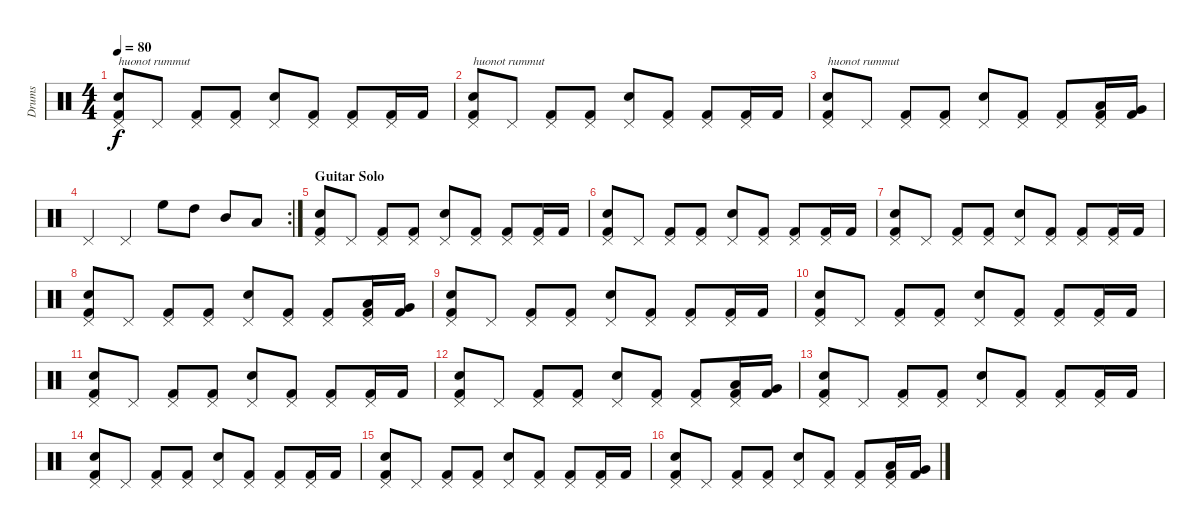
\track ("Drums" "Drums") {instrument percussion}
\staff {score}
\articulation defaults
\ts (4 4)
\tempo 80
\clef neutral
\ks c
("Pedal Hi-Hat (hit)" "Snare (hit) 2" "Kick (hit) 2").8{txt "huonot rummut" dy f} "Pedal Hi-Hat (hit)".8 ("Pedal Hi-Hat (hit)" "Kick (hit) 2").8 ("Pedal Hi-Hat (hit)" "Kick (hit) 2").8 ("Pedal Hi-Hat (hit)" "Snare (hit) 2").8 ("Pedal Hi-Hat (hit)" "Kick (hit) 2").8 ("Pedal Hi-Hat (hit)" "Kick (hit) 2").8 ("Pedal Hi-Hat (hit)" "Kick (hit) 2").16 "Kick (hit) 2".16 |
("Pedal Hi-Hat (hit)" "Snare (hit) 2" "Kick (hit) 2").8{txt "huonot rummut"} "Pedal Hi-Hat (hit)".8 ("Pedal Hi-Hat (hit)" "Kick (hit) 2").8 ("Pedal Hi-Hat (hit)" "Kick (hit) 2").8 ("Pedal Hi-Hat (hit)" "Snare (hit) 2").8 ("Pedal Hi-Hat (hit)" "Kick (hit) 2").8 ("Pedal Hi-Hat (hit)" "Kick (hit) 2").8 ("Pedal Hi-Hat (hit)" "Kick (hit) 2").16 "Kick (hit) 2".16 |
("Pedal Hi-Hat (hit)" "Snare (hit) 2" "Kick (hit) 2").8{txt "huonot rummut"} "Pedal Hi-Hat (hit)".8 ("Pedal Hi-Hat (hit)" "Kick (hit) 2").8 ("Pedal Hi-Hat (hit)" "Kick (hit) 2").8 ("Pedal Hi-Hat (hit)" "Snare (hit) 2").8 ("Pedal Hi-Hat (hit)" "Kick (hit) 2").8 ("Pedal Hi-Hat (hit)" "Kick (hit) 2").8 ("Pedal Hi-Hat (hit)" "Low Tom (hit)" "Kick (hit) 2").16 ("Very Low Tom (hit)" "Kick (hit) 2").16 |
\rc 2 "Pedal Hi-Hat (hit)".4 "Pedal Hi-Hat (hit)".4 "High Floor Tom (hit)".8 "High Tom (hit)".8 "Mid Tom (hit)".8 "Low Tom (hit)".8
|
\section ("" "Guitar Solo")
("Pedal Hi-Hat (hit)" "Snare (hit) 2" "Kick (hit) 2").8 "Pedal Hi-Hat (hit)".8 ("Pedal Hi-Hat (hit)" "Kick (hit) 2").8 ("Pedal Hi-Hat (hit)" "Kick (hit) 2").8 ("Pedal Hi-Hat (hit)" "Snare (hit) 2").8 ("Pedal Hi-Hat (hit)" "Kick (hit) 2").8 ("Pedal Hi-Hat (hit)" "Kick (hit) 2").8 ("Pedal Hi-Hat (hit)" "Kick (hit) 2").16 "Kick (hit) 2".16 |
("Pedal Hi-Hat (hit)" "Snare (hit) 2" "Kick (hit) 2").8 "Pedal Hi-Hat (hit)".8 ("Pedal Hi-Hat (hit)" "Kick (hit) 2").8 ("Pedal Hi-Hat (hit)" "Kick (hit) 2").8 ("Pedal Hi-Hat (hit)" "Snare (hit) 2").8 ("Pedal Hi-Hat (hit)" "Kick (hit) 2").8 ("Pedal Hi-Hat (hit)" "Kick (hit) 2").8 ("Pedal Hi-Hat (hit)" "Kick (hit) 2").16 "Kick (hit) 2".16 |
("Pedal Hi-Hat (hit)" "Snare (hit) 2" "Kick (hit) 2").8 "Pedal Hi-Hat (hit)".8 ("Pedal Hi-Hat (hit)" "Kick (hit) 2").8 ("Pedal Hi-Hat (hit)" "Kick (hit) 2").8 ("Pedal Hi-Hat (hit)" "Snare (hit) 2").8 ("Pedal Hi-Hat (hit)" "Kick (hit) 2").8 ("Pedal Hi-Hat (hit)" "Kick (hit) 2").8 ("Pedal Hi-Hat (hit)" "Kick (hit) 2").16 "Kick (hit) 2".16 |
("Pedal Hi-Hat (hit)" "Snare (hit) 2" "Kick (hit) 2").8 "Pedal Hi-Hat (hit)".8 ("Pedal Hi-Hat (hit)" "Kick (hit) 2").8 ("Pedal Hi-Hat (hit)" "Kick (hit) 2").8 ("Pedal Hi-Hat (hit)" "Snare (hit) 2").8 ("Pedal Hi-Hat (hit)" "Kick (hit) 2").8 ("Pedal Hi-Hat (hit)" "Kick (hit) 2").8 ("Pedal Hi-Hat (hit)" "Low Tom (hit)" "Kick (hit) 2").16 ("Very Low Tom (hit)" "Kick (hit) 2").16 |
("Pedal Hi-Hat (hit)" "Snare (hit) 2" "Kick (hit) 2").8 "Pedal Hi-Hat (hit)".8 ("Pedal Hi-Hat (hit)" "Kick (hit) 2").8 ("Pedal Hi-Hat (hit)" "Kick (hit) 2").8 ("Pedal Hi-Hat (hit)" "Snare (hit) 2").8 ("Pedal Hi-Hat (hit)" "Kick (hit) 2").8 ("Pedal Hi-Hat (hit)" "Kick (hit) 2").8 ("Pedal Hi-Hat (hit)" "Kick (hit) 2").16 "Kick (hit) 2".16 |
("Pedal Hi-Hat (hit)" "Snare (hit) 2" "Kick (hit) 2").8 "Pedal Hi-Hat (hit)".8 ("Pedal Hi-Hat (hit)" "Kick (hit) 2").8 ("Pedal Hi-Hat (hit)" "Kick (hit) 2").8 ("Pedal Hi-Hat (hit)" "Snare (hit) 2").8 ("Pedal Hi-Hat (hit)" "Kick (hit) 2").8 ("Pedal Hi-Hat (hit)" "Kick (hit) 2").8 ("Pedal Hi-Hat (hit)" "Kick (hit) 2").16 "Kick (hit) 2".16 |
("Pedal Hi-Hat (hit)" "Snare (hit) 2" "Kick (hit) 2").8 "Pedal Hi-Hat (hit)".8 ("Pedal Hi-Hat (hit)" "Kick (hit) 2").8 ("Pedal Hi-Hat (hit)" "Kick (hit) 2").8 ("Pedal Hi-Hat (hit)" "Snare (hit) 2").8 ("Pedal Hi-Hat (hit)" "Kick (hit) 2").8 ("Pedal Hi-Hat (hit)" "Kick (hit) 2").8 ("Pedal Hi-Hat (hit)" "Kick (hit) 2").16 "Kick (hit) 2".16 |
("Pedal Hi-Hat (hit)" "Snare (hit) 2" "Kick (hit) 2").8 "Pedal Hi-Hat (hit)".8 ("Pedal Hi-Hat (hit)" "Kick (hit) 2").8 ("Pedal Hi-Hat (hit)" "Kick (hit) 2").8 ("Pedal Hi-Hat (hit)" "Snare (hit) 2").8 ("Pedal Hi-Hat (hit)" "Kick (hit) 2").8 ("Pedal Hi-Hat (hit)" "Kick (hit) 2").8 ("Pedal Hi-Hat (hit)" "Low Tom (hit)" "Kick (hit) 2").16 ("Very Low Tom (hit)" "Kick (hit) 2").16 |
("Pedal Hi-Hat (hit)" "Snare (hit) 2" "Kick (hit) 2").8 "Pedal Hi-Hat (hit)".8 ("Pedal Hi-Hat (hit)" "Kick (hit) 2").8 ("Pedal Hi-Hat (hit)" "Kick (hit) 2").8 ("Pedal Hi-Hat (hit)" "Snare (hit) 2").8 ("Pedal Hi-Hat (hit)" "Kick (hit) 2").8 ("Pedal Hi-Hat (hit)" "Kick (hit) 2").8 ("Pedal Hi-Hat (hit)" "Kick (hit) 2").16 "Kick (hit) 2".16 |
("Pedal Hi-Hat (hit)" "Snare (hit) 2" "Kick (hit) 2").8 "Pedal Hi-Hat (hit)".8 ("Pedal Hi-Hat (hit)" "Kick (hit) 2").8 ("Pedal Hi-Hat (hit)" "Kick (hit) 2").8 ("Pedal Hi-Hat (hit)" "Snare (hit) 2").8 ("Pedal Hi-Hat (hit)" "Kick (hit) 2").8 ("Pedal Hi-Hat (hit)" "Kick (hit) 2").8 ("Pedal Hi-Hat (hit)" "Kick (hit) 2").16 "Kick (hit) 2".16 |
("Pedal Hi-Hat (hit)" "Snare (hit) 2" "Kick (hit) 2").8 "Pedal Hi-Hat (hit)".8 ("Pedal Hi-Hat (hit)" "Kick (hit) 2").8 ("Pedal Hi-Hat (hit)" "Kick (hit) 2").8 ("Pedal Hi-Hat (hit)" "Snare (hit) 2").8 ("Pedal Hi-Hat (hit)" "Kick (hit) 2").8 ("Pedal Hi-Hat (hit)" "Kick (hit) 2").8 ("Pedal Hi-Hat (hit)" "Kick (hit) 2").16 "Kick (hit) 2".16 |
("Pedal Hi-Hat (hit)" "Snare (hit) 2" "Kick (hit) 2").8 "Pedal Hi-Hat (hit)".8 ("Pedal Hi-Hat (hit)" "Kick (hit) 2").8 ("Pedal Hi-Hat (hit)" "Kick (hit) 2").8 ("Pedal Hi-Hat (hit)" "Snare (hit) 2").8 ("Pedal Hi-Hat (hit)" "Kick (hit) 2").8 ("Pedal Hi-Hat (hit)" "Kick (hit) 2").8 ("Pedal Hi-Hat (hit)" "Low Tom (hit)" "Kick (hit) 2").16 ("Very Low Tom (hit)" "Kick (hit) 2").16
